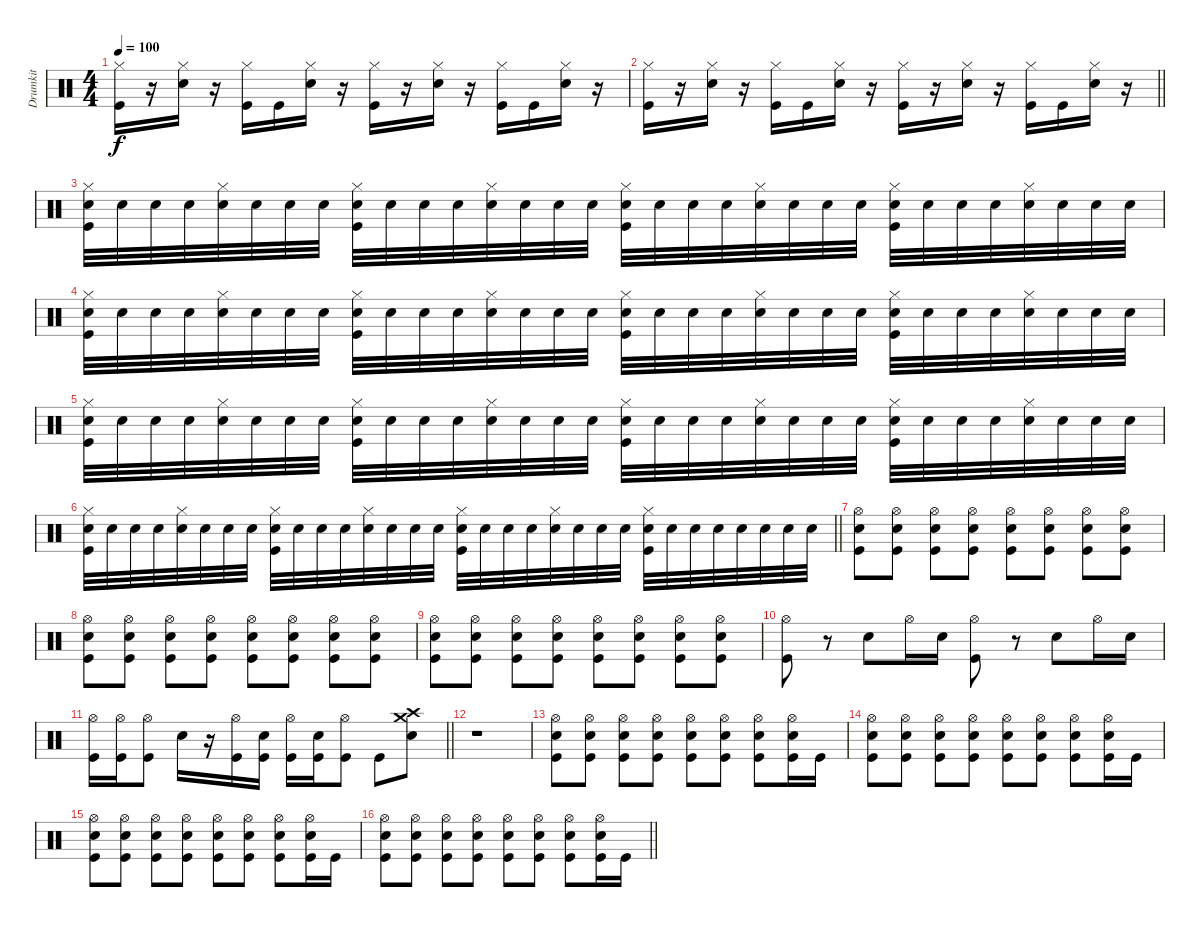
\track ("Drumkit" "Drumkit") {instrument percussion}
\staff {score}
\articulation defaults
\ts (4 4)
\tempo 100
\clef neutral
\ks c
("Hi-Hat (closed)" "Kick (hit)").16{dy f} r.16 ("Hi-Hat (closed)" "Snare (hit) 2").16 r.16 ("Hi-Hat (closed)" "Kick (hit)").16 "Kick (hit)".16 ("Hi-Hat (closed)" "Snare (hit) 2").16 r.16 ("Hi-Hat (closed)" "Kick (hit)").16 r.16 ("Hi-Hat (closed)" "Snare (hit) 2").16 r.16 ("Hi-Hat (closed)" "Kick (hit)").16 "Kick (hit)".16 ("Hi-Hat (closed)" "Snare (hit) 2").16 r.16 |
\barLineRight lightlight
("Hi-Hat (closed)" "Kick (hit)").16 r.16 ("Hi-Hat (closed)" "Snare (hit) 2").16 r.16 ("Hi-Hat (closed)" "Kick (hit)").16 "Kick (hit)".16 ("Hi-Hat (closed)" "Snare (hit) 2").16 r.16 ("Hi-Hat (closed)" "Kick (hit)").16 r.16 ("Hi-Hat (closed)" "Snare (hit) 2").16 r.16 ("Hi-Hat (closed)" "Kick (hit)").16 "Kick (hit)".16 ("Hi-Hat (closed)" "Snare (hit) 2").16 r.16 |
("Hi-Hat (closed)" "Snare (hit) 2" "Kick (hit)").32 "Snare (hit) 2".32 "Snare (hit) 2".32 "Snare (hit) 2".32 ("Snare (hit) 2" "Hi-Hat (closed)").32 "Snare (hit) 2".32 "Snare (hit) 2".32 "Snare (hit) 2".32 ("Hi-Hat (closed)" "Snare (hit) 2" "Kick (hit)").32 "Snare (hit) 2".32 "Snare (hit) 2".32 "Snare (hit) 2".32 ("Snare (hit) 2" "Hi-Hat (closed)").32 "Snare (hit) 2".32 "Snare (hit) 2".32 "Snare (hit) 2".32 ("Hi-Hat (closed)" "Snare (hit) 2" "Kick (hit)").32 "Snare (hit) 2".32 "Snare (hit) 2".32 "Snare (hit) 2".32 ("Snare (hit) 2" "Hi-Hat (closed)").32 "Snare (hit) 2".32 "Snare (hit) 2".32 "Snare (hit) 2".32 ("Hi-Hat (closed)" "Snare (hit) 2" "Kick (hit)").32 "Snare (hit) 2".32 "Snare (hit) 2".32 "Snare (hit) 2".32 ("Snare (hit) 2" "Hi-Hat (closed)").32 "Snare (hit) 2".32 "Snare (hit) 2".32 "Snare (hit) 2".32 |
("Hi-Hat (closed)" "Snare (hit) 2" "Kick (hit)").32 "Snare (hit) 2".32 "Snare (hit) 2".32 "Snare (hit) 2".32 ("Snare (hit) 2" "Hi-Hat (closed)").32 "Snare (hit) 2".32 "Snare (hit) 2".32 "Snare (hit) 2".32 ("Hi-Hat (closed)" "Snare (hit) 2" "Kick (hit)").32 "Snare (hit) 2".32 "Snare (hit) 2".32 "Snare (hit) 2".32 ("Snare (hit) 2" "Hi-Hat (closed)").32 "Snare (hit) 2".32 "Snare (hit) 2".32 "Snare (hit) 2".32 ("Hi-Hat (closed)" "Snare (hit) 2" "Kick (hit)").32 "Snare (hit) 2".32 "Snare (hit) 2".32 "Snare (hit) 2".32 ("Snare (hit) 2" "Hi-Hat (closed)").32 "Snare (hit) 2".32 "Snare (hit) 2".32 "Snare (hit) 2".32 ("Hi-Hat (closed)" "Snare (hit) 2" "Kick (hit)").32 "Snare (hit) 2".32 "Snare (hit) 2".32 "Snare (hit) 2".32 ("Snare (hit) 2" "Hi-Hat (closed)").32 "Snare (hit) 2".32 "Snare (hit) 2".32 "Snare (hit) 2".32 |
("Hi-Hat (closed)" "Snare (hit) 2" "Kick (hit)").32 "Snare (hit) 2".32 "Snare (hit) 2".32 "Snare (hit) 2".32 ("Snare (hit) 2" "Hi-Hat (closed)").32 "Snare (hit) 2".32 "Snare (hit) 2".32 "Snare (hit) 2".32 ("Hi-Hat (closed)" "Snare (hit) 2" "Kick (hit)").32 "Snare (hit) 2".32 "Snare (hit) 2".32 "Snare (hit) 2".32 ("Snare (hit) 2" "Hi-Hat (closed)").32 "Snare (hit) 2".32 "Snare (hit) 2".32 "Snare (hit) 2".32 ("Hi-Hat (closed)" "Snare (hit) 2" "Kick (hit)").32 "Snare (hit) 2".32 "Snare (hit) 2".32 "Snare (hit) 2".32 ("Snare (hit) 2" "Hi-Hat (closed)").32 "Snare (hit) 2".32 "Snare (hit) 2".32 "Snare (hit) 2".32 ("Hi-Hat (closed)" "Snare (hit) 2" "Kick (hit)").32 "Snare (hit) 2".32 "Snare (hit) 2".32 "Snare (hit) 2".32 ("Snare (hit) 2" "Hi-Hat (closed)").32 "Snare (hit) 2".32 "Snare (hit) 2".32 "Snare (hit) 2".32 |
\barLineRight lightlight
("Hi-Hat (closed)" "Snare (hit) 2" "Kick (hit)").32 "Snare (hit) 2".32 "Snare (hit) 2".32 "Snare (hit) 2".32 ("Snare (hit) 2" "Hi-Hat (closed)").32 "Snare (hit) 2".32 "Snare (hit) 2".32 "Snare (hit) 2".32 ("Hi-Hat (closed)" "Snare (hit) 2" "Kick (hit)").32 "Snare (hit) 2".32 "Snare (hit) 2".32 "Snare (hit) 2".32 ("Snare (hit) 2" "Hi-Hat (closed)").32 "Snare (hit) 2".32 "Snare (hit) 2".32 "Snare (hit) 2".32 ("Hi-Hat (closed)" "Snare (hit) 2" "Kick (hit)").32 "Snare (hit) 2".32 "Snare (hit) 2".32 "Snare (hit) 2".32 ("Snare (hit) 2" "Hi-Hat (closed)").32 "Snare (hit) 2".32 "Snare (hit) 2".32 "Snare (hit) 2".32 ("Hi-Hat (closed)" "Snare (hit) 2" "Kick (hit)").32 "Snare (hit) 2".32 "Snare (hit) 2".32 "Snare (hit) 2".32 "Snare (hit) 2".32 "Snare (hit) 2".32 "Snare (hit) 2".32 "Snare (hit) 2".32 |
("Hi-Hat (open)" "Snare (hit) 2" "Kick (hit)").8 ("Hi-Hat (open)" "Snare (hit) 2" "Kick (hit)").8 ("Hi-Hat (open)" "Snare (hit) 2" "Kick (hit)").8 ("Hi-Hat (open)" "Snare (hit) 2" "Kick (hit)").8 ("Hi-Hat (open)" "Snare (hit) 2" "Kick (hit)").8 ("Hi-Hat (open)" "Snare (hit) 2" "Kick (hit)").8 ("Hi-Hat (open)" "Snare (hit) 2" "Kick (hit)").8 ("Hi-Hat (open)" "Snare (hit) 2" "Kick (hit)").8 |
("Hi-Hat (open)" "Snare (hit) 2" "Kick (hit)").8 ("Hi-Hat (open)" "Snare (hit) 2" "Kick (hit)").8 ("Hi-Hat (open)" "Snare (hit) 2" "Kick (hit)").8 ("Hi-Hat (open)" "Snare (hit) 2" "Kick (hit)").8 ("Hi-Hat (open)" "Snare (hit) 2" "Kick (hit)").8 ("Hi-Hat (open)" "Snare (hit) 2" "Kick (hit)").8 ("Hi-Hat (open)" "Snare (hit) 2" "Kick (hit)").8 ("Hi-Hat (open)" "Snare (hit) 2" "Kick (hit)").8 |
("Hi-Hat (open)" "Snare (hit) 2" "Kick (hit)").8 ("Hi-Hat (open)" "Snare (hit) 2" "Kick (hit)").8 ("Hi-Hat (open)" "Snare (hit) 2" "Kick (hit)").8 ("Hi-Hat (open)" "Snare (hit) 2" "Kick (hit)").8 ("Hi-Hat (open)" "Snare (hit) 2" "Kick (hit)").8 ("Hi-Hat (open)" "Snare (hit) 2" "Kick (hit)").8 ("Hi-Hat (open)" "Snare (hit) 2" "Kick (hit)").8 ("Hi-Hat (open)" "Snare (hit) 2" "Kick (hit)").8 |
("Hi-Hat (open)" "Kick (hit)").8 r.8 "Snare (hit) 2".8 "Hi-Hat (open)".16 "Snare (hit) 2".16 ("Hi-Hat (open)" "Kick (hit)").8 r.8 "Snare (hit) 2".8 "Hi-Hat (open)".16 "Snare (hit) 2".16 |
\barLineRight lightlight
("Hi-Hat (open)" "Kick (hit)").16 ("Hi-Hat (open)" "Kick (hit)").16 ("Hi-Hat (open)" "Kick (hit)").8 "Snare (hit) 2".16 r.16 ("Hi-Hat (open)" "Kick (hit)").16 ("Snare (hit) 2" "Kick (hit)").16 ("Hi-Hat (open)" "Kick (hit)").16 ("Snare (hit) 2" "Kick (hit)").16 ("Hi-Hat (open)" "Kick (hit)").8 "Kick (hit)".8 ("Crash high (hit)" "Crash medium (hit)" "Snare (hit) 2").8 |
r.1 |
("Hi-Hat (open)" "Snare (hit) 2" "Kick (hit)").8 ("Hi-Hat (open)" "Snare (hit) 2" "Kick (hit)").8 ("Hi-Hat (open)" "Snare (hit) 2" "Kick (hit)").8 ("Hi-Hat (open)" "Snare (hit) 2" "Kick (hit)").8 ("Hi-Hat (open)" "Snare (hit) 2" "Kick (hit)").8 ("Hi-Hat (open)" "Snare (hit) 2" "Kick (hit)").8 ("Hi-Hat (open)" "Snare (hit) 2" "Kick (hit)").8 ("Hi-Hat (open)" "Snare (hit) 2" "Kick (hit)").16 "Kick (hit)".16 |
("Hi-Hat (open)" "Snare (hit) 2" "Kick (hit)").8 ("Hi-Hat (open)" "Snare (hit) 2" "Kick (hit)").8 ("Hi-Hat (open)" "Snare (hit) 2" "Kick (hit)").8 ("Hi-Hat (open)" "Snare (hit) 2" "Kick (hit)").8 ("Hi-Hat (open)" "Snare (hit) 2" "Kick (hit)").8 ("Hi-Hat (open)" "Snare (hit) 2" "Kick (hit)").8 ("Hi-Hat (open)" "Snare (hit) 2" "Kick (hit)").8 ("Hi-Hat (open)" "Snare (hit) 2" "Kick (hit)").16 "Kick (hit)".16 |
("Hi-Hat (open)" "Snare (hit) 2" "Kick (hit)").8 ("Hi-Hat (open)" "Snare (hit) 2" "Kick (hit)").8 ("Hi-Hat (open)" "Snare (hit) 2" "Kick (hit)").8 ("Hi-Hat (open)" "Snare (hit) 2" "Kick (hit)").8 ("Hi-Hat (open)" "Snare (hit) 2" "Kick (hit)").8 ("Hi-Hat (open)" "Snare (hit) 2" "Kick (hit)").8 ("Hi-Hat (open)" "Snare (hit) 2" "Kick (hit)").8 ("Hi-Hat (open)" "Snare (hit) 2" "Kick (hit)").16 "Kick (hit)".16 |
\barLineRight lightlight
("Hi-Hat (open)" "Snare (hit) 2" "Kick (hit)").8 ("Hi-Hat (open)" "Snare (hit) 2" "Kick (hit)").8 ("Hi-Hat (open)" "Snare (hit) 2" "Kick (hit)").8 ("Hi-Hat (open)" "Snare (hit) 2" "Kick (hit)").8 ("Hi-Hat (open)" "Snare (hit) 2" "Kick (hit)").8 ("Hi-Hat (open)" "Snare (hit) 2" "Kick (hit)").8 ("Hi-Hat (open)" "Snare (hit) 2" "Kick (hit)").8 ("Hi-Hat (open)" "Snare (hit) 2" "Kick (hit)").16 "Kick (hit)".16
